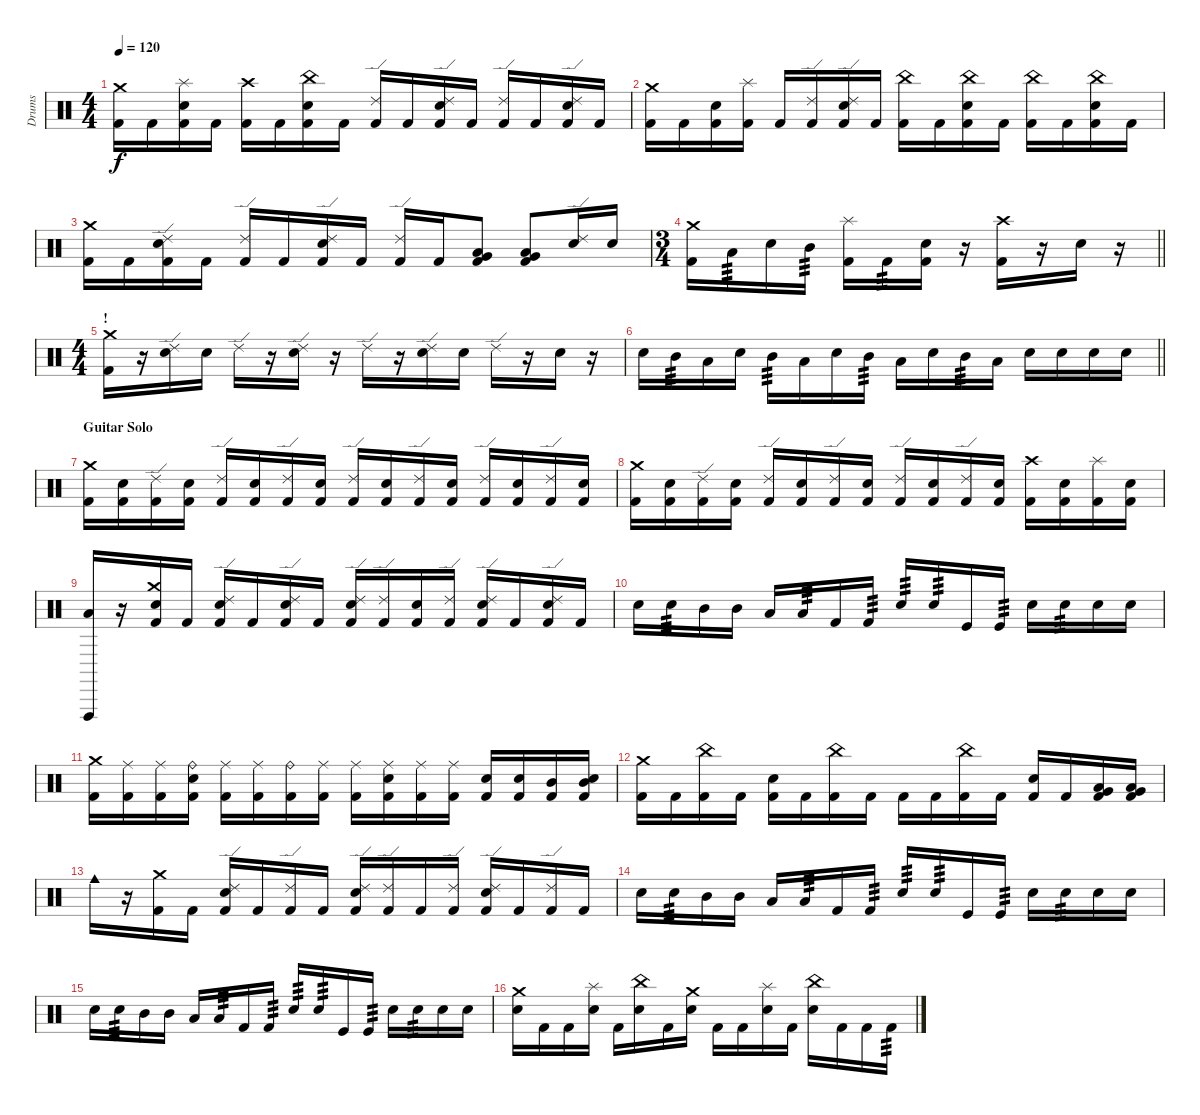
\track ("Drums" "Drums") {instrument percussion}
\staff {score}
\articulation defaults
\ts (4 4)
\tempo 120
\clef neutral
\ks c
("Crash medium (hit)" "Kick (hit) 2").16{dy f} "Kick (hit) 2".16 ("Splash (hit)" "Snare (hit) 2" "Kick (hit) 2").16 "Kick (hit) 2".16 ("Crash high (hit)" "Kick (hit) 2").16 "Kick (hit) 2".16 ("China (hit)" "Snare (hit) 2" "Kick (hit) 2").16 "Kick (hit) 2".16 ("Ride (edge) 2" "Kick (hit) 2").16 "Kick (hit) 2".16 ("Ride (edge) 2" "Snare (hit) 2" "Kick (hit) 2").16 "Kick (hit) 2".16 ("Ride (edge) 2" "Kick (hit) 2").16 "Kick (hit) 2".16 ("Ride (edge) 2" "Snare (hit) 2" "Kick (hit) 2").16 "Kick (hit) 2".16 |
("Crash medium (hit)" "Kick (hit) 2").16 "Kick (hit) 2".16 ("Snare (hit) 2" "Kick (hit) 2").16 ("Splash (hit)" "Kick (hit) 2").16 "Kick (hit) 2".16 ("Ride (edge) 2" "Kick (hit) 2").16 ("Ride (edge) 2" "Snare (hit) 2" "Kick (hit) 2").16 "Kick (hit) 2".16 ("China (hit)" "Kick (hit) 2").16 "Kick (hit) 2".16 ("China (hit)" "Snare (hit) 2" "Kick (hit) 2").16 "Kick (hit) 2".16 ("China (hit)" "Kick (hit) 2").16 "Kick (hit) 2".16 ("China (hit)" "Snare (hit) 2" "Kick (hit) 2").16 "Kick (hit) 2".16 |
("Crash medium (hit)" "Kick (hit) 2").16 "Kick (hit) 2".16 ("Ride (edge) 2" "Snare (hit) 2" "Kick (hit) 2").16 "Kick (hit) 2".16 ("Ride (edge) 2" "Kick (hit) 2").16 "Kick (hit) 2".16 ("Ride (edge) 2" "Snare (hit) 2" "Kick (hit) 2").16 "Kick (hit) 2".16 ("Ride (edge) 2" "Kick (hit) 2").16 "Kick (hit) 2".16 ("Very Low Tom (hit)" "Low Floor Tom (hit)" "Kick (hit) 2").8 ("Very Low Tom (hit)" "Low Floor Tom (hit)" "Kick (hit) 2").8 ("Ride (edge) 2" "Snare (hit) 2").16 "Snare (hit) 2".16 |
\ts (3 4)
\barLineRight lightlight
("Crash medium (hit)" "Kick (hit) 2").16 "Low Tom (hit)".16{tp 3} "Snare (hit) 2".16 "Mid Tom (hit)".16{tp 3} ("Splash (hit)" "Kick (hit) 2").16 "Kick (hit) 2".16{tp 3} ("Snare (hit) 2" "Kick (hit) 2").16 r.16 ("Crash high (hit)" "Kick (hit) 2").16 r.16 "Snare (hit) 2".16 r.16 |
\ts (4 4)
\section ("" "!")
("Crash medium (hit)" "Kick (hit) 2").16 r.16 ("Ride (edge) 2" "Snare (hit) 2").16 "Snare (hit) 2".16 "Ride (edge) 2".16 r.16 ("Ride (edge) 2" "Snare (hit) 2").16 r.16 "Ride (edge) 2".16 r.16 ("Ride (edge) 2" "Snare (hit) 2").16 "Snare (hit) 2".16 "Ride (edge) 2".16 r.16 "Snare (hit) 2".16 r.16 |
\barLineRight lightlight "Snare (hit) 2".16 "Mid Tom (hit)".16{tp 3} "Low Tom (hit)".16 "Snare (hit) 2".16 "Mid Tom (hit)".16{tp 3} "Low Tom (hit)".16 "Snare (hit) 2".16 "Mid Tom (hit)".16{tp 3} "Low Tom (hit)".16 "Snare (hit) 2".16 "Mid Tom (hit)".16{tp 3} "Low Tom (hit)".16 "Snare (hit) 2".16 "Snare (hit) 2".16 "Snare (hit) 2".16 "Snare (hit) 2".16
|
\section ("" "Guitar Solo")
("Crash medium (hit)" "Kick (hit) 2").16 ("Snare (hit) 2" "Kick (hit) 2").16 ("Ride (edge) 2" "Kick (hit) 2").16 ("Snare (hit) 2" "Kick (hit) 2").16 ("Ride (edge) 2" "Kick (hit) 2").16 ("Snare (hit) 2" "Kick (hit) 2").16 ("Ride (edge) 2" "Kick (hit) 2").16 ("Snare (hit) 2" "Kick (hit) 2").16 ("Ride (edge) 2" "Kick (hit) 2").16 ("Snare (hit) 2" "Kick (hit) 2").16 ("Ride (edge) 2" "Kick (hit) 2").16 ("Snare (hit) 2" "Kick (hit) 2").16 ("Ride (edge) 2" "Kick (hit) 2").16 ("Snare (hit) 2" "Kick (hit) 2").16 ("Ride (edge) 2" "Kick (hit) 2").16 ("Snare (hit) 2" "Kick (hit) 2").16 |
("Crash medium (hit)" "Kick (hit) 2").16 ("Snare (hit) 2" "Kick (hit) 2").16 ("Ride (edge) 2" "Kick (hit) 2").16 ("Snare (hit) 2" "Kick (hit) 2").16 ("Ride (edge) 2" "Kick (hit) 2").16 ("Snare (hit) 2" "Kick (hit) 2").16 ("Ride (edge) 2" "Kick (hit) 2").16 ("Snare (hit) 2" "Kick (hit) 2").16 ("Ride (edge) 2" "Kick (hit) 2").16 ("Snare (hit) 2" "Kick (hit) 2").16 ("Ride (edge) 2" "Kick (hit) 2").16 ("Snare (hit) 2" "Kick (hit) 2").16 ("Crash high (hit)" "Kick (hit) 2").16 ("Snare (hit) 2" "Kick (hit) 2").16 ("Splash (hit)" "Kick (hit) 2").16 ("Snare (hit) 2" "Kick (hit) 2").16 |
("Vibraslap (hit)" "Low Tom (hit)").16 r.16 ("Crash medium (hit)" "Snare (hit) 2" "Kick (hit) 2").16 "Kick (hit) 2".16 ("Ride (edge) 2" "Snare (hit) 2" "Kick (hit) 2").16 "Kick (hit) 2".16 ("Ride (edge) 2" "Snare (hit) 2" "Kick (hit) 2").16 "Kick (hit) 2".16 ("Ride (edge) 2" "Snare (hit) 2" "Kick (hit) 2").16 ("Ride (edge) 2" "Kick (hit) 2").16 ("Snare (hit) 2" "Kick (hit) 2").16 ("Ride (edge) 2" "Kick (hit) 2").16 ("Ride (edge) 2" "Snare (hit) 2" "Kick (hit) 2").16 "Kick (hit) 2".16 ("Ride (edge) 2" "Snare (hit) 2" "Kick (hit) 2").16 "Kick (hit) 2".16 |
"Snare (hit) 2".16 "Snare (hit) 2".16{tp 3} "Mid Tom (hit)".16 "Mid Tom (hit)".16 "Low Tom (hit)".16 "Low Tom (hit)".16{tp 3} "Kick (hit) 2".16 "Kick (hit) 2".16{tp 3} "Snare (hit) 2".16{tp 3} "Snare (hit) 2".16{tp 3} "Kick (hit)".16 "Kick (hit)".16{tp 3} "Snare (hit) 2".16 "Snare (hit) 2".16{tp 3} "Snare (hit) 2".16 "Snare (hit) 2".16 |
("Crash medium (hit)" "Kick (hit) 2").16 ("Ride (middle)" "Kick (hit) 2").16 ("Ride (middle)" "Kick (hit) 2").16 ("Ride (bell)" "Snare (hit) 2" "Kick (hit) 2").16 ("Ride (middle)" "Kick (hit) 2").16 ("Ride (middle)" "Kick (hit) 2").16 ("Ride (bell)" "Kick (hit) 2").16 ("Ride (middle)" "Kick (hit) 2").16 ("Ride (middle)" "Kick (hit) 2").16 ("Ride (middle)" "Snare (hit) 2" "Kick (hit) 2").16 ("Ride (middle)" "Kick (hit) 2").16 ("Ride (middle)" "Kick (hit) 2").16 ("Snare (hit) 2" "Kick (hit) 2").16 ("Snare (hit) 2" "Kick (hit) 2").16 ("Mid Tom (hit)" "Kick (hit) 2").16 ("Mid Tom (hit)" "Snare (hit) 2" "Kick (hit) 2").16 |
("Crash medium (hit)" "Kick (hit) 2").16 "Kick (hit) 2".16 ("China (hit)" "Kick (hit) 2").16 "Kick (hit) 2".16 ("Snare (hit) 2" "Kick (hit) 2").16 "Kick (hit) 2".16 ("China (hit)" "Kick (hit) 2").16 "Kick (hit) 2".16 "Kick (hit) 2".16 "Kick (hit) 2".16 ("China (hit)" "Kick (hit) 2").16 "Kick (hit) 2".16 ("Snare (hit) 2" "Kick (hit) 2").16 "Kick (hit) 2".16 ("Low Tom (hit)" "Very Low Tom (hit)" "Kick (hit) 2").16 ("Low Tom (hit)" "Very Low Tom (hit)" "Kick (hit) 2").16 |
"Cowbell medium (hit)".16 r.16 ("Crash medium (hit)" "Kick (hit) 2").16 "Kick (hit) 2".16 ("Ride (edge) 2" "Snare (hit) 2" "Kick (hit) 2").16 "Kick (hit) 2".16 ("Ride (edge) 2" "Kick (hit) 2").16 "Kick (hit) 2".16 ("Ride (edge) 2" "Snare (hit) 2" "Kick (hit) 2").16 ("Ride (edge) 2" "Kick (hit) 2").16 "Kick (hit) 2".16 ("Ride (edge) 2" "Kick (hit) 2").16 ("Ride (edge) 2" "Snare (hit) 2" "Kick (hit) 2").16 "Kick (hit) 2".16 ("Ride (edge) 2" "Kick (hit) 2").16 "Kick (hit) 2".16 |
"Snare (hit) 2".16 "Snare (hit) 2".16{tp 3} "Mid Tom (hit)".16 "Mid Tom (hit)".16 "Low Tom (hit)".16 "Low Tom (hit)".16{tp 3} "Kick (hit) 2".16 "Kick (hit) 2".16{tp 3} "Snare (hit) 2".16{tp 3} "Snare (hit) 2".16{tp 3} "Kick (hit)".16 "Kick (hit)".16{tp 3} "Snare (hit) 2".16 "Snare (hit) 2".16{tp 3} "Snare (hit) 2".16 "Snare (hit) 2".16 |
"Snare (hit) 2".16 "Snare (hit) 2".16{tp 3} "Mid Tom (hit)".16 "Mid Tom (hit)".16 "Low Tom (hit)".16 "Low Tom (hit)".16{tp 3} "Kick (hit) 2".16 "Kick (hit) 2".16{tp 3} "Snare (hit) 2".16{tp 3} "Snare (hit) 2".16{tp 3} "Kick (hit)".16 "Kick (hit)".16{tp 3} "Snare (hit) 2".16 "Snare (hit) 2".16{tp 3} "Snare (hit) 2".16 "Snare (hit) 2".16 |
("Crash medium (hit)" "Snare (hit) 2").16 "Kick (hit) 2".16 "Kick (hit) 2".16 ("Splash (hit)" "Snare (hit) 2").16 "Kick (hit) 2".16 ("China (hit)" "Snare (hit) 2").16 "Kick (hit) 2".16 ("Crash medium (hit)" "Snare (hit) 2").16 "Kick (hit) 2".16 "Kick (hit) 2".16 ("Splash (hit)" "Snare (hit) 2").16 "Kick (hit) 2".16 ("China (hit)" "Snare (hit) 2").16 "Kick (hit) 2".16 "Kick (hit) 2".16 "Kick (hit) 2".16{tp 3}
